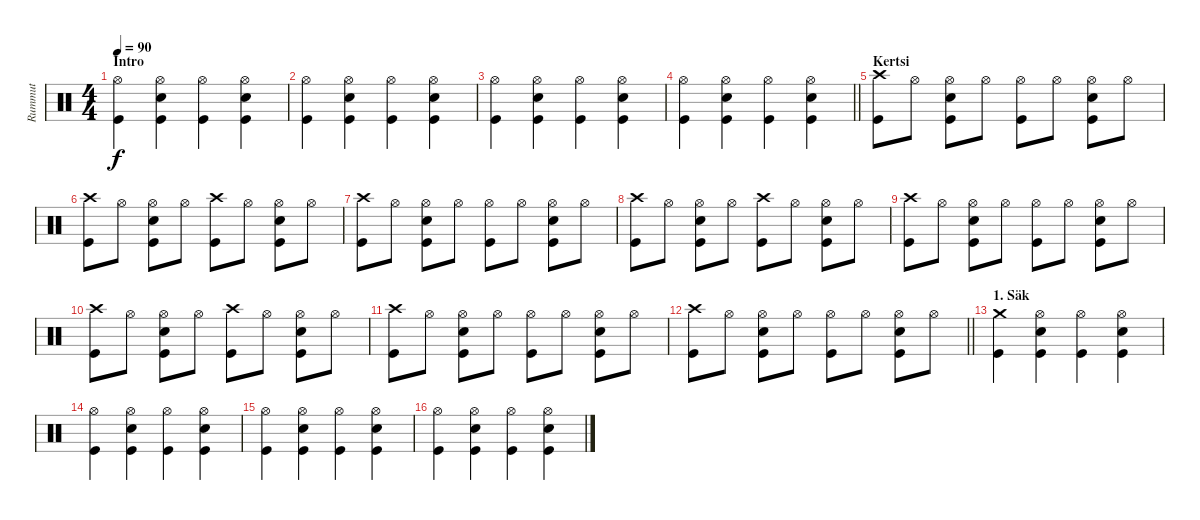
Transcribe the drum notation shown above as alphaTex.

\track ("Rummut" "Rummut") {instrument percussion}
\staff {score}
\articulation defaults
\ts (4 4)
\section ("" "Intro")
\tempo 90
\clef neutral
\ks c
("Hi-Hat (open)" "Kick (hit)").4{dy f} ("Hi-Hat (open)" "Electric Snare (hit)" "Kick (hit)").4 ("Hi-Hat (open)" "Kick (hit)").4 ("Hi-Hat (open)" "Electric Snare (hit)" "Kick (hit)").4 |
("Hi-Hat (open)" "Kick (hit)").4 ("Hi-Hat (open)" "Electric Snare (hit)" "Kick (hit)").4 ("Hi-Hat (open)" "Kick (hit)").4 ("Hi-Hat (open)" "Electric Snare (hit)" "Kick (hit)").4 |
("Hi-Hat (open)" "Kick (hit)").4 ("Hi-Hat (open)" "Electric Snare (hit)" "Kick (hit)").4 ("Hi-Hat (open)" "Kick (hit)").4 ("Hi-Hat (open)" "Electric Snare (hit)" "Kick (hit)").4 |
\barLineRight lightlight
("Hi-Hat (open)" "Kick (hit)").4 ("Hi-Hat (open)" "Electric Snare (hit)" "Kick (hit)").4 ("Hi-Hat (open)" "Kick (hit)").4 ("Hi-Hat (open)" "Electric Snare (hit)" "Kick (hit)").4 |
\section ("" "Kertsi")
("Crash high (hit)" "Kick (hit)").8 "Hi-Hat (open)".8 ("Hi-Hat (open)" "Electric Snare (hit)" "Kick (hit)").8 "Hi-Hat (open)".8 ("Hi-Hat (open)" "Kick (hit)").8 "Hi-Hat (open)".8 ("Hi-Hat (open)" "Electric Snare (hit)" "Kick (hit)").8 "Hi-Hat (open)".8 |
("Crash high (hit)" "Kick (hit)").8 "Hi-Hat (open)".8 ("Hi-Hat (open)" "Electric Snare (hit)" "Kick (hit)").8 "Hi-Hat (open)".8 ("Crash high (hit)" "Kick (hit)").8 "Hi-Hat (open)".8 ("Hi-Hat (open)" "Electric Snare (hit)" "Kick (hit)").8 "Hi-Hat (open)".8 |
("Crash high (hit)" "Kick (hit)").8 "Hi-Hat (open)".8 ("Hi-Hat (open)" "Electric Snare (hit)" "Kick (hit)").8 "Hi-Hat (open)".8 ("Hi-Hat (open)" "Kick (hit)").8 "Hi-Hat (open)".8 ("Hi-Hat (open)" "Electric Snare (hit)" "Kick (hit)").8 "Hi-Hat (open)".8 |
("Crash high (hit)" "Kick (hit)").8 "Hi-Hat (open)".8 ("Hi-Hat (open)" "Electric Snare (hit)" "Kick (hit)").8 "Hi-Hat (open)".8 ("Crash high (hit)" "Kick (hit)").8 "Hi-Hat (open)".8 ("Hi-Hat (open)" "Electric Snare (hit)" "Kick (hit)").8 "Hi-Hat (open)".8 |
("Crash high (hit)" "Kick (hit)").8 "Hi-Hat (open)".8 ("Hi-Hat (open)" "Electric Snare (hit)" "Kick (hit)").8 "Hi-Hat (open)".8 ("Hi-Hat (open)" "Kick (hit)").8 "Hi-Hat (open)".8 ("Hi-Hat (open)" "Electric Snare (hit)" "Kick (hit)").8 "Hi-Hat (open)".8 |
("Crash high (hit)" "Kick (hit)").8 "Hi-Hat (open)".8 ("Hi-Hat (open)" "Electric Snare (hit)" "Kick (hit)").8 "Hi-Hat (open)".8 ("Crash high (hit)" "Kick (hit)").8 "Hi-Hat (open)".8 ("Hi-Hat (open)" "Electric Snare (hit)" "Kick (hit)").8 "Hi-Hat (open)".8 |
("Crash high (hit)" "Kick (hit)").8 "Hi-Hat (open)".8 ("Hi-Hat (open)" "Electric Snare (hit)" "Kick (hit)").8 "Hi-Hat (open)".8 ("Hi-Hat (open)" "Kick (hit)").8 "Hi-Hat (open)".8 ("Hi-Hat (open)" "Electric Snare (hit)" "Kick (hit)").8 "Hi-Hat (open)".8 |
\barLineRight lightlight
("Crash high (hit)" "Kick (hit)").8 "Hi-Hat (open)".8 ("Hi-Hat (open)" "Electric Snare (hit)" "Kick (hit)").8 "Hi-Hat (open)".8 ("Hi-Hat (open)" "Kick (hit)").8 "Hi-Hat (open)".8 ("Hi-Hat (open)" "Electric Snare (hit)" "Kick (hit)").8 "Hi-Hat (open)".8 |
\section ("" "1. Säk")
("Crash medium (hit)" "Kick (hit)").4 ("Hi-Hat (open)" "Electric Snare (hit)" "Kick (hit)").4 ("Hi-Hat (open)" "Kick (hit)").4 ("Hi-Hat (open)" "Electric Snare (hit)" "Kick (hit)").4 |
("Hi-Hat (open)" "Kick (hit)").4 ("Hi-Hat (open)" "Electric Snare (hit)" "Kick (hit)").4 ("Hi-Hat (open)" "Kick (hit)").4 ("Hi-Hat (open)" "Electric Snare (hit)" "Kick (hit)").4 |
("Hi-Hat (open)" "Kick (hit)").4 ("Hi-Hat (open)" "Electric Snare (hit)" "Kick (hit)").4 ("Hi-Hat (open)" "Kick (hit)").4 ("Hi-Hat (open)" "Electric Snare (hit)" "Kick (hit)").4 |
("Hi-Hat (open)" "Kick (hit)").4 ("Hi-Hat (open)" "Electric Snare (hit)" "Kick (hit)").4 ("Hi-Hat (open)" "Kick (hit)").4 ("Hi-Hat (open)" "Electric Snare (hit)" "Kick (hit)").4
